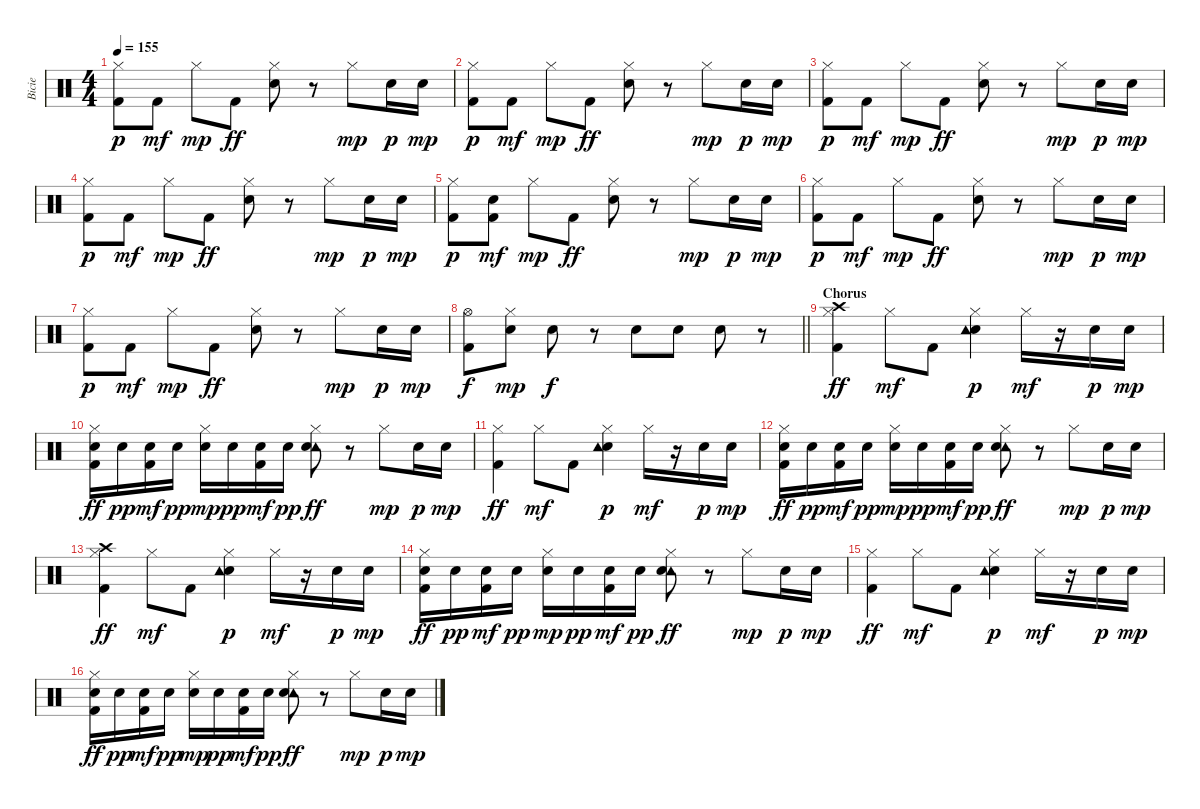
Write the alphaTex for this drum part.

\track ("Bicie" "Bicie") {instrument percussion}
\staff {score}
\articulation defaults
\ts (4 4)
\tempo 155
\clef neutral
\ks c
("Hi-Hat (closed)" "Kick (hit) 2").8{dy p} "Kick (hit) 2".8{dy mf} "Hi-Hat (closed)".8{dy mp} "Kick (hit) 2".8{dy ff} ("Hi-Hat (closed)" "Electric Snare (hit)").8 r.8 "Hi-Hat (closed)".8{dy mp} "Electric Snare (hit)".16{dy p} "Electric Snare (hit)".16{dy mp} |
("Hi-Hat (closed)" "Kick (hit) 2").8{dy p} "Kick (hit) 2".8{dy mf} "Hi-Hat (closed)".8{dy mp} "Kick (hit) 2".8{dy ff} ("Hi-Hat (closed)" "Electric Snare (hit)").8 r.8 "Hi-Hat (closed)".8{dy mp} "Electric Snare (hit)".16{dy p} "Electric Snare (hit)".16{dy mp} |
("Hi-Hat (closed)" "Kick (hit) 2").8{dy p} "Kick (hit) 2".8{dy mf} "Hi-Hat (closed)".8{dy mp} "Kick (hit) 2".8{dy ff} ("Hi-Hat (closed)" "Electric Snare (hit)").8 r.8 "Hi-Hat (closed)".8{dy mp} "Electric Snare (hit)".16{dy p} "Electric Snare (hit)".16{dy mp} |
("Hi-Hat (closed)" "Kick (hit) 2").8{dy p} "Kick (hit) 2".8{dy mf} "Hi-Hat (closed)".8{dy mp} "Kick (hit) 2".8{dy ff} ("Hi-Hat (closed)" "Electric Snare (hit)").8 r.8 "Hi-Hat (closed)".8{dy mp} "Electric Snare (hit)".16{dy p} "Electric Snare (hit)".16{dy mp} |
("Hi-Hat (closed)" "Kick (hit) 2").8{dy p} ("Electric Snare (hit)" "Kick (hit) 2").8{dy mf} "Hi-Hat (closed)".8{dy mp} "Kick (hit) 2".8{dy ff} ("Hi-Hat (closed)" "Electric Snare (hit)").8 r.8 "Hi-Hat (closed)".8{dy mp} "Electric Snare (hit)".16{dy p} "Electric Snare (hit)".16{dy mp} |
("Hi-Hat (closed)" "Kick (hit) 2").8{dy p} "Kick (hit) 2".8{dy mf} "Hi-Hat (closed)".8{dy mp} "Kick (hit) 2".8{dy ff} ("Hi-Hat (closed)" "Electric Snare (hit)").8 r.8 "Hi-Hat (closed)".8{dy mp} "Electric Snare (hit)".16{dy p} "Electric Snare (hit)".16{dy mp} |
("Hi-Hat (closed)" "Kick (hit) 2").8{dy p} "Kick (hit) 2".8{dy mf} "Hi-Hat (closed)".8{dy mp} "Kick (hit) 2".8{dy ff} ("Hi-Hat (closed)" "Electric Snare (hit)").8 r.8 "Hi-Hat (closed)".8{dy mp} "Electric Snare (hit)".16{dy p} "Electric Snare (hit)".16{dy mp} |
\barLineRight lightlight
("Hi-Hat (open)" "Kick (hit) 2").8{dy f} ("Hi-Hat (closed)" "Electric Snare (hit)").8{dy mp} "Electric Snare (hit)".8{dy f} r.8 "Electric Snare (hit)".8 "Electric Snare (hit)".8 "Electric Snare (hit)".8 r.8 |
\section ("" "Chorus")
("Hi-Hat (closed)" "Crash high (hit)" "Kick (hit) 2").4{dy ff} "Hi-Hat (closed)".8{dy mf} "Kick (hit) 2".8 ("Hi-Hat (closed)" "Electric Snare (hit)" "Tambourine (hit)").4{dy p} "Hi-Hat (closed)".16{dy mf} r.16 "Electric Snare (hit)".16{dy p} "Electric Snare (hit)".16{dy mp} |
("Hi-Hat (closed)" "Electric Snare (hit)" "Kick (hit) 2").16{dy ff} "Electric Snare (hit)".16{dy pp} ("Electric Snare (hit)" "Kick (hit) 2").16{dy mf} "Electric Snare (hit)".16{dy pp} ("Hi-Hat (closed)" "Electric Snare (hit)").16{dy mp} "Electric Snare (hit)".16{dy pp} ("Electric Snare (hit)" "Kick (hit) 2").16{dy mf} "Electric Snare (hit)".16{dy pp} ("Hi-Hat (closed)" "Tambourine (hit)" "Electric Snare (hit)").8{dy ff} r.8 "Hi-Hat (closed)".8{dy mp} "Electric Snare (hit)".16{dy p} "Electric Snare (hit)".16{dy mp} |
("Hi-Hat (closed)" "Kick (hit) 2").4{dy ff} "Hi-Hat (closed)".8{dy mf} "Kick (hit) 2".8 ("Hi-Hat (closed)" "Electric Snare (hit)" "Tambourine (hit)").4{dy p} "Hi-Hat (closed)".16{dy mf} r.16 "Electric Snare (hit)".16{dy p} "Electric Snare (hit)".16{dy mp} |
("Hi-Hat (closed)" "Electric Snare (hit)" "Kick (hit) 2").16{dy ff} "Electric Snare (hit)".16{dy pp} ("Electric Snare (hit)" "Kick (hit) 2").16{dy mf} "Electric Snare (hit)".16{dy pp} ("Hi-Hat (closed)" "Electric Snare (hit)").16{dy mp} "Electric Snare (hit)".16{dy pp} ("Electric Snare (hit)" "Kick (hit) 2").16{dy mf} "Electric Snare (hit)".16{dy pp} ("Hi-Hat (closed)" "Tambourine (hit)" "Electric Snare (hit)").8{dy ff} r.8 "Hi-Hat (closed)".8{dy mp} "Electric Snare (hit)".16{dy p} "Electric Snare (hit)".16{dy mp} |
("Hi-Hat (closed)" "Crash high (hit)" "Kick (hit) 2").4{dy ff} "Hi-Hat (closed)".8{dy mf} "Kick (hit) 2".8 ("Hi-Hat (closed)" "Electric Snare (hit)" "Tambourine (hit)").4{dy p} "Hi-Hat (closed)".16{dy mf} r.16 "Electric Snare (hit)".16{dy p} "Electric Snare (hit)".16{dy mp} |
("Hi-Hat (closed)" "Electric Snare (hit)" "Kick (hit) 2").16{dy ff} "Electric Snare (hit)".16{dy pp} ("Electric Snare (hit)" "Kick (hit) 2").16{dy mf} "Electric Snare (hit)".16{dy pp} ("Hi-Hat (closed)" "Electric Snare (hit)").16{dy mp} "Electric Snare (hit)".16{dy pp} ("Electric Snare (hit)" "Kick (hit) 2").16{dy mf} "Electric Snare (hit)".16{dy pp} ("Hi-Hat (closed)" "Tambourine (hit)" "Electric Snare (hit)").8{dy ff} r.8 "Hi-Hat (closed)".8{dy mp} "Electric Snare (hit)".16{dy p} "Electric Snare (hit)".16{dy mp} |
("Hi-Hat (closed)" "Kick (hit) 2").4{dy ff} "Hi-Hat (closed)".8{dy mf} "Kick (hit) 2".8 ("Hi-Hat (closed)" "Electric Snare (hit)" "Tambourine (hit)").4{dy p} "Hi-Hat (closed)".16{dy mf} r.16 "Electric Snare (hit)".16{dy p} "Electric Snare (hit)".16{dy mp} |
("Hi-Hat (closed)" "Electric Snare (hit)" "Kick (hit) 2").16{dy ff} "Electric Snare (hit)".16{dy pp} ("Electric Snare (hit)" "Kick (hit) 2").16{dy mf} "Electric Snare (hit)".16{dy pp} ("Hi-Hat (closed)" "Electric Snare (hit)").16{dy mp} "Electric Snare (hit)".16{dy pp} ("Electric Snare (hit)" "Kick (hit) 2").16{dy mf} "Electric Snare (hit)".16{dy pp} ("Hi-Hat (closed)" "Tambourine (hit)" "Electric Snare (hit)").8{dy ff} r.8 "Hi-Hat (closed)".8{dy mp} "Electric Snare (hit)".16{dy p} "Electric Snare (hit)".16{dy mp}
